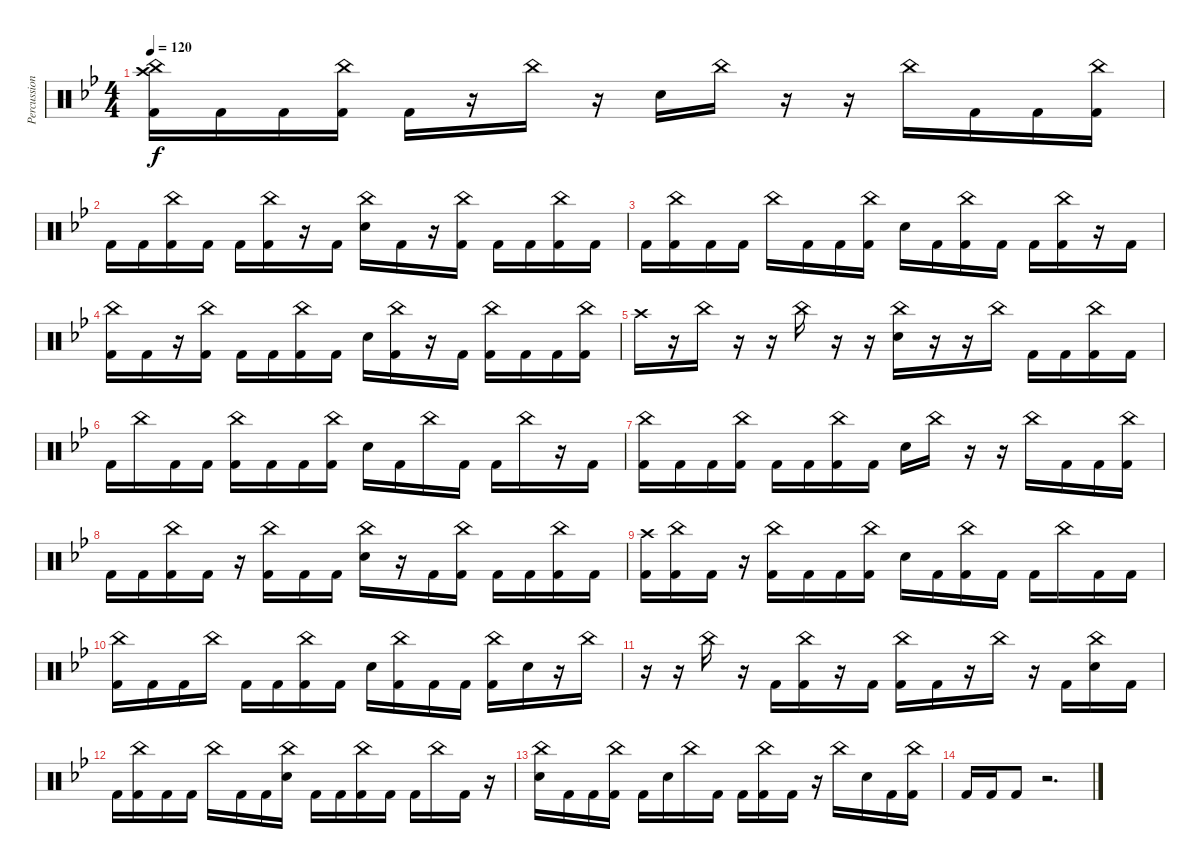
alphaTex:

\track ("Percussion" "Percussion") {instrument percussion}
\staff {score}
\articulation defaults
\ts (4 4)
\tempo 120
\clef neutral
\ks bb
("Crash high (hit)" "China (hit)" "Kick (hit) 2").16{dy f} "Kick (hit) 2".16 "Kick (hit) 2".16 ("China (hit)" "Kick (hit) 2").16 "Kick (hit) 2".16 r.16 "China (hit)".16 r.16 "Electric Snare (hit)".16 "China (hit)".16 r.16 r.16 "China (hit)".16 "Kick (hit) 2".16 "Kick (hit) 2".16 ("China (hit)" "Kick (hit) 2").16 |
"Kick (hit) 2".16 "Kick (hit) 2".16 ("China (hit)" "Kick (hit) 2").16 "Kick (hit) 2".16 "Kick (hit) 2".16 ("China (hit)" "Kick (hit) 2").16 r.16 "Kick (hit) 2".16 ("China (hit)" "Electric Snare (hit)").16 "Kick (hit) 2".16 r.16 ("China (hit)" "Kick (hit) 2").16 "Kick (hit) 2".16 "Kick (hit) 2".16 ("China (hit)" "Kick (hit) 2").16 "Kick (hit) 2".16 |
"Kick (hit) 2".16 ("China (hit)" "Kick (hit) 2").16 "Kick (hit) 2".16 "Kick (hit) 2".16 "China (hit)".16 "Kick (hit) 2".16 "Kick (hit) 2".16 ("China (hit)" "Kick (hit) 2").16 "Electric Snare (hit)".16 "Kick (hit) 2".16 ("China (hit)" "Kick (hit) 2").16 "Kick (hit) 2".16 "Kick (hit) 2".16 ("China (hit)" "Kick (hit) 2").16 r.16 "Kick (hit) 2".16 |
("China (hit)" "Kick (hit) 2").16 "Kick (hit) 2".16 r.16 ("China (hit)" "Kick (hit) 2").16 "Kick (hit) 2".16 "Kick (hit) 2".16 ("China (hit)" "Kick (hit) 2").16 "Kick (hit) 2".16 "Electric Snare (hit)".16 ("China (hit)" "Kick (hit) 2").16 r.16 "Kick (hit) 2".16 ("China (hit)" "Kick (hit) 2").16 "Kick (hit) 2".16 "Kick (hit) 2".16 ("China (hit)" "Kick (hit) 2").16 |
"Crash high (hit)".16 r.16 "China (hit)".16 r.16 r.16 "China (hit)".16 r.16 r.16 ("China (hit)" "Electric Snare (hit)").16 r.16 r.16 "China (hit)".16 "Kick (hit) 2".16 "Kick (hit) 2".16 ("China (hit)" "Kick (hit) 2").16 "Kick (hit) 2".16 |
"Kick (hit) 2".16 "China (hit)".16 "Kick (hit) 2".16 "Kick (hit) 2".16 ("China (hit)" "Kick (hit) 2").16 "Kick (hit) 2".16 "Kick (hit) 2".16 ("China (hit)" "Kick (hit) 2").16 "Electric Snare (hit)".16 "Kick (hit) 2".16 "China (hit)".16 "Kick (hit) 2".16 "Kick (hit) 2".16 "China (hit)".16 r.16 "Kick (hit) 2".16 |
("China (hit)" "Kick (hit) 2").16 "Kick (hit) 2".16 "Kick (hit) 2".16 ("China (hit)" "Kick (hit) 2").16 "Kick (hit) 2".16 "Kick (hit) 2".16 ("China (hit)" "Kick (hit) 2").16 "Kick (hit) 2".16 "Electric Snare (hit)".16 "China (hit)".16 r.16 r.16 "China (hit)".16 "Kick (hit) 2".16 "Kick (hit) 2".16 ("China (hit)" "Kick (hit) 2").16 |
"Kick (hit) 2".16 "Kick (hit) 2".16 ("China (hit)" "Kick (hit) 2").16 "Kick (hit) 2".16 r.16 ("China (hit)" "Kick (hit) 2").16 "Kick (hit) 2".16 "Kick (hit) 2".16 ("China (hit)" "Electric Snare (hit)").16 r.16 "Kick (hit) 2".16 ("China (hit)" "Kick (hit) 2").16 "Kick (hit) 2".16 "Kick (hit) 2".16 ("China (hit)" "Kick (hit) 2").16 "Kick (hit) 2".16 |
("Crash high (hit)" "Kick (hit) 2").16 ("China (hit)" "Kick (hit) 2").16 "Kick (hit) 2".16 r.16 ("China (hit)" "Kick (hit) 2").16 "Kick (hit) 2".16 "Kick (hit) 2".16 ("China (hit)" "Kick (hit) 2").16 "Electric Snare (hit)".16 "Kick (hit) 2".16 ("China (hit)" "Kick (hit) 2").16 "Kick (hit) 2".16 "Kick (hit) 2".16 "China (hit)".16 "Kick (hit) 2".16 "Kick (hit) 2".16 |
("China (hit)" "Kick (hit) 2").16 "Kick (hit) 2".16 "Kick (hit) 2".16 "China (hit)".16 "Kick (hit) 2".16 "Kick (hit) 2".16 ("China (hit)" "Kick (hit) 2").16 "Kick (hit) 2".16 "Electric Snare (hit)".16 ("China (hit)" "Kick (hit) 2").16 "Kick (hit) 2".16 "Kick (hit) 2".16 ("China (hit)" "Kick (hit) 2").16 "Electric Snare (hit)".16 r.16 "China (hit)".16 |
r.16 r.16 "China (hit)".16 r.16 "Kick (hit) 2".16 ("China (hit)" "Kick (hit) 2").16 r.16 "Kick (hit) 2".16 ("China (hit)" "Kick (hit) 2").16 "Kick (hit) 2".16 r.16 "China (hit)".16 r.16 "Kick (hit) 2".16 ("China (hit)" "Electric Snare (hit)").16 "Kick (hit) 2".16 |
"Kick (hit) 2".16 ("China (hit)" "Kick (hit) 2").16 "Kick (hit) 2".16 "Kick (hit) 2".16 "China (hit)".16 "Kick (hit) 2".16 "Kick (hit) 2".16 ("China (hit)" "Electric Snare (hit)").16 "Kick (hit) 2".16 "Kick (hit) 2".16 ("China (hit)" "Kick (hit) 2").16 "Kick (hit) 2".16 "Kick (hit) 2".16 "China (hit)".16 "Kick (hit) 2".16 r.16 |
("China (hit)" "Electric Snare (hit)").16 "Kick (hit) 2".16 "Kick (hit) 2".16 ("China (hit)" "Kick (hit) 2").16 "Kick (hit) 2".16 "Electric Snare (hit)".16 "China (hit)".16 "Kick (hit) 2".16 "Kick (hit) 2".16 ("China (hit)" "Kick (hit) 2").16 "Kick (hit) 2".16 r.16 "China (hit)".16 "Electric Snare (hit)".16 "Kick (hit) 2".16 ("China (hit)" "Kick (hit) 2").16 |
"Kick (hit) 2".16 "Kick (hit) 2".16 "Kick (hit) 2".8 r.2{d}
